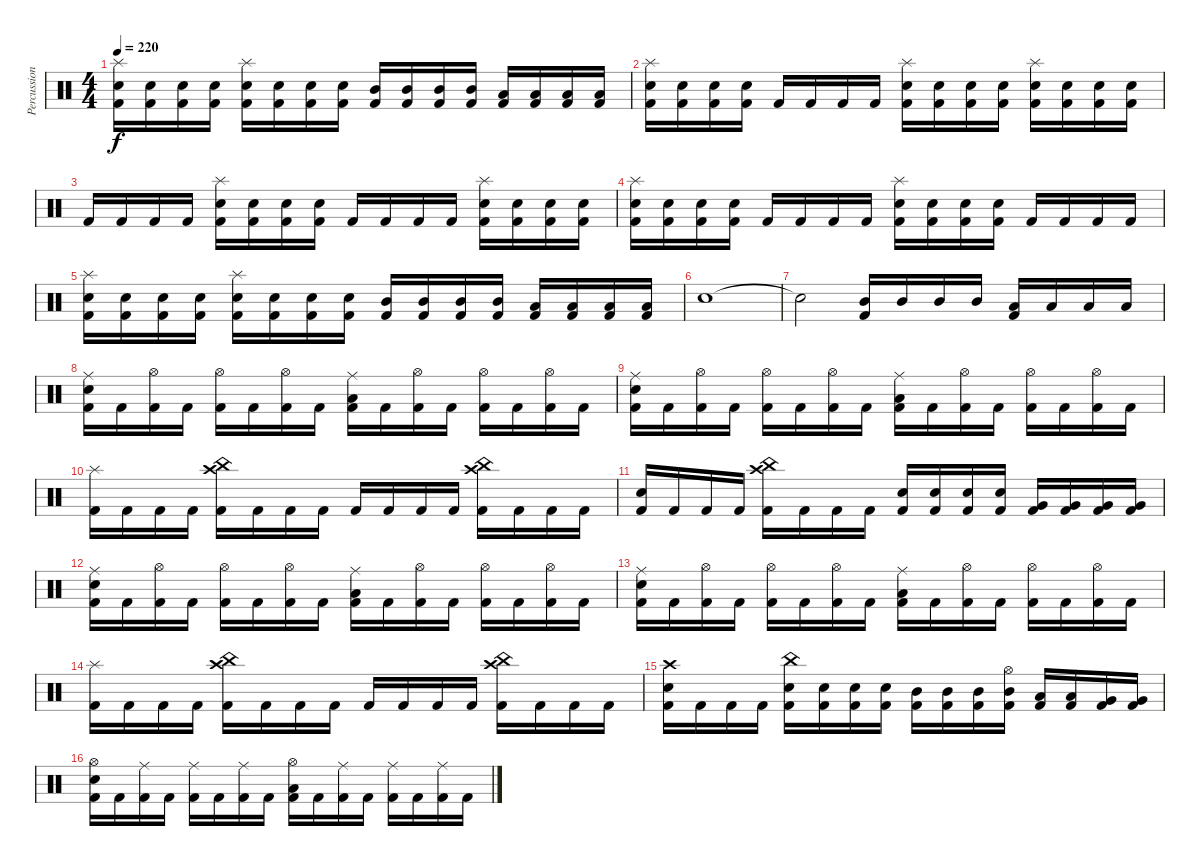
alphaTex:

\track ("Percussion" "Percussion") {instrument percussion}
\staff {score}
\articulation defaults
\ts (4 4)
\tempo 220
\clef neutral
\ks c
("Splash (hit)" "Electric Snare (hit)" "Kick (hit) 2").16{dy f} ("Electric Snare (hit)" "Kick (hit) 2").16 ("Electric Snare (hit)" "Kick (hit) 2").16 ("Electric Snare (hit)" "Kick (hit) 2").16 ("Splash (hit)" "Electric Snare (hit)" "Kick (hit) 2").16 ("Electric Snare (hit)" "Kick (hit) 2").16 ("Electric Snare (hit)" "Kick (hit) 2").16 ("Electric Snare (hit)" "Kick (hit) 2").16 ("Mid Tom (hit)" "Kick (hit) 2").16 ("Mid Tom (hit)" "Kick (hit) 2").16 ("Mid Tom (hit)" "Kick (hit) 2").16 ("Mid Tom (hit)" "Kick (hit) 2").16 ("Low Tom (hit)" "Kick (hit) 2").16 ("Low Tom (hit)" "Kick (hit) 2").16 ("Low Tom (hit)" "Kick (hit) 2").16 ("Low Tom (hit)" "Kick (hit) 2").16 |
("Splash (hit)" "Electric Snare (hit)" "Kick (hit) 2").16 ("Electric Snare (hit)" "Kick (hit) 2").16 ("Electric Snare (hit)" "Kick (hit) 2").16 ("Electric Snare (hit)" "Kick (hit) 2").16 "Kick (hit) 2".16 "Kick (hit) 2".16 "Kick (hit) 2".16 "Kick (hit) 2".16 ("Splash (hit)" "Electric Snare (hit)" "Kick (hit) 2").16 ("Electric Snare (hit)" "Kick (hit) 2").16 ("Electric Snare (hit)" "Kick (hit) 2").16 ("Electric Snare (hit)" "Kick (hit) 2").16 ("Splash (hit)" "Electric Snare (hit)" "Kick (hit) 2").16 ("Electric Snare (hit)" "Kick (hit) 2").16 ("Electric Snare (hit)" "Kick (hit) 2").16 ("Electric Snare (hit)" "Kick (hit) 2").16 |
"Kick (hit) 2".16 "Kick (hit) 2".16 "Kick (hit) 2".16 "Kick (hit) 2".16 ("Splash (hit)" "Electric Snare (hit)" "Kick (hit) 2").16 ("Electric Snare (hit)" "Kick (hit) 2").16 ("Electric Snare (hit)" "Kick (hit) 2").16 ("Electric Snare (hit)" "Kick (hit) 2").16 "Kick (hit) 2".16 "Kick (hit) 2".16 "Kick (hit) 2".16 "Kick (hit) 2".16 ("Splash (hit)" "Electric Snare (hit)" "Kick (hit) 2").16 ("Electric Snare (hit)" "Kick (hit) 2").16 ("Electric Snare (hit)" "Kick (hit) 2").16 ("Electric Snare (hit)" "Kick (hit) 2").16 |
("Splash (hit)" "Electric Snare (hit)" "Kick (hit) 2").16 ("Electric Snare (hit)" "Kick (hit) 2").16 ("Electric Snare (hit)" "Kick (hit) 2").16 ("Electric Snare (hit)" "Kick (hit) 2").16 "Kick (hit) 2".16 "Kick (hit) 2".16 "Kick (hit) 2".16 "Kick (hit) 2".16 ("Splash (hit)" "Electric Snare (hit)" "Kick (hit) 2").16 ("Electric Snare (hit)" "Kick (hit) 2").16 ("Electric Snare (hit)" "Kick (hit) 2").16 ("Electric Snare (hit)" "Kick (hit) 2").16 "Kick (hit) 2".16 "Kick (hit) 2".16 "Kick (hit) 2".16 "Kick (hit) 2".16 |
("Splash (hit)" "Electric Snare (hit)" "Kick (hit) 2").16 ("Electric Snare (hit)" "Kick (hit) 2").16 ("Electric Snare (hit)" "Kick (hit) 2").16 ("Electric Snare (hit)" "Kick (hit) 2").16 ("Splash (hit)" "Electric Snare (hit)" "Kick (hit) 2").16 ("Electric Snare (hit)" "Kick (hit) 2").16 ("Electric Snare (hit)" "Kick (hit) 2").16 ("Electric Snare (hit)" "Kick (hit) 2").16 ("Mid Tom (hit)" "Kick (hit) 2").16 ("Mid Tom (hit)" "Kick (hit) 2").16 ("Mid Tom (hit)" "Kick (hit) 2").16 ("Mid Tom (hit)" "Kick (hit) 2").16 ("Low Tom (hit)" "Kick (hit) 2").16 ("Low Tom (hit)" "Kick (hit) 2").16 ("Low Tom (hit)" "Kick (hit) 2").16 ("Low Tom (hit)" "Kick (hit) 2").16 |
"Electric Snare (hit)".1 |
"Snare (hit)"{t}.2 ("Mid Tom (hit)" "Kick (hit) 2").16 "Mid Tom (hit)".16 "Mid Tom (hit)".16 "Mid Tom (hit)".16 ("Low Tom (hit)" "Kick (hit) 2").16 "Low Tom (hit)".16 "Low Tom (hit)".16 "Low Tom (hit)".16 |
("Ride (middle)" "Electric Snare (hit)" "Kick (hit) 2").16 "Kick (hit) 2".16 ("Hi-Hat (open)" "Kick (hit) 2").16 "Kick (hit) 2".16 ("Hi-Hat (open)" "Kick (hit) 2").16 "Kick (hit) 2".16 ("Hi-Hat (open)" "Kick (hit) 2").16 "Kick (hit) 2".16 ("Ride (middle)" "Low Tom (hit)" "Kick (hit) 2").16 "Kick (hit) 2".16 ("Hi-Hat (open)" "Kick (hit) 2").16 "Kick (hit) 2".16 ("Hi-Hat (open)" "Kick (hit) 2").16 "Kick (hit) 2".16 ("Hi-Hat (open)" "Kick (hit) 2").16 "Kick (hit) 2".16 |
("Ride (middle)" "Electric Snare (hit)" "Kick (hit) 2").16 "Kick (hit) 2".16 ("Hi-Hat (open)" "Kick (hit) 2").16 "Kick (hit) 2".16 ("Hi-Hat (open)" "Kick (hit) 2").16 "Kick (hit) 2".16 ("Hi-Hat (open)" "Kick (hit) 2").16 "Kick (hit) 2".16 ("Ride (middle)" "Low Tom (hit)" "Kick (hit) 2").16 "Kick (hit) 2".16 ("Hi-Hat (open)" "Kick (hit) 2").16 "Kick (hit) 2".16 ("Hi-Hat (open)" "Kick (hit) 2").16 "Kick (hit) 2".16 ("Hi-Hat (open)" "Kick (hit) 2").16 "Kick (hit) 2".16 |
("Splash (hit)" "Kick (hit) 2").16 "Kick (hit) 2".16 "Kick (hit) 2".16 "Kick (hit) 2".16 ("Crash high (hit)" "China (hit)" "Kick (hit) 2").16 "Kick (hit) 2".16 "Kick (hit) 2".16 "Kick (hit) 2".16 "Kick (hit) 2".16 "Kick (hit) 2".16 "Kick (hit) 2".16 "Kick (hit) 2".16 ("Crash high (hit)" "China (hit)" "Kick (hit) 2").16 "Kick (hit) 2".16 "Kick (hit) 2".16 "Kick (hit) 2".16 |
("Electric Snare (hit)" "Kick (hit) 2").16 "Kick (hit) 2".16 "Kick (hit) 2".16 "Kick (hit) 2".16 ("Crash high (hit)" "China (hit)" "Kick (hit) 2").16 "Kick (hit) 2".16 "Kick (hit) 2".16 "Kick (hit) 2".16 ("Electric Snare (hit)" "Kick (hit) 2").16 ("Electric Snare (hit)" "Kick (hit) 2").16 ("Electric Snare (hit)" "Kick (hit) 2").16 ("Electric Snare (hit)" "Kick (hit) 2").16 ("Very Low Tom (hit)" "Kick (hit) 2").16 ("Very Low Tom (hit)" "Kick (hit) 2").16 ("Very Low Tom (hit)" "Kick (hit) 2").16 ("Very Low Tom (hit)" "Kick (hit) 2").16 |
("Ride (middle)" "Electric Snare (hit)" "Kick (hit) 2").16 "Kick (hit) 2".16 ("Hi-Hat (open)" "Kick (hit) 2").16 "Kick (hit) 2".16 ("Hi-Hat (open)" "Kick (hit) 2").16 "Kick (hit) 2".16 ("Hi-Hat (open)" "Kick (hit) 2").16 "Kick (hit) 2".16 ("Ride (middle)" "Low Tom (hit)" "Kick (hit) 2").16 "Kick (hit) 2".16 ("Hi-Hat (open)" "Kick (hit) 2").16 "Kick (hit) 2".16 ("Hi-Hat (open)" "Kick (hit) 2").16 "Kick (hit) 2".16 ("Hi-Hat (open)" "Kick (hit) 2").16 "Kick (hit) 2".16 |
("Ride (middle)" "Electric Snare (hit)" "Kick (hit) 2").16 "Kick (hit) 2".16 ("Hi-Hat (open)" "Kick (hit) 2").16 "Kick (hit) 2".16 ("Hi-Hat (open)" "Kick (hit) 2").16 "Kick (hit) 2".16 ("Hi-Hat (open)" "Kick (hit) 2").16 "Kick (hit) 2".16 ("Ride (middle)" "Low Tom (hit)" "Kick (hit) 2").16 "Kick (hit) 2".16 ("Hi-Hat (open)" "Kick (hit) 2").16 "Kick (hit) 2".16 ("Hi-Hat (open)" "Kick (hit) 2").16 "Kick (hit) 2".16 ("Hi-Hat (open)" "Kick (hit) 2").16 "Kick (hit) 2".16 |
("Splash (hit)" "Kick (hit) 2").16 "Kick (hit) 2".16 "Kick (hit) 2".16 "Kick (hit) 2".16 ("Crash high (hit)" "China (hit)" "Kick (hit) 2").16 "Kick (hit) 2".16 "Kick (hit) 2".16 "Kick (hit) 2".16 "Kick (hit) 2".16 "Kick (hit) 2".16 "Kick (hit) 2".16 "Kick (hit) 2".16 ("Crash high (hit)" "China (hit)" "Kick (hit) 2").16 "Kick (hit) 2".16 "Kick (hit) 2".16 "Kick (hit) 2".16 |
("Crash high (hit)" "Electric Snare (hit)" "Kick (hit) 2").16 "Kick (hit) 2".16 "Kick (hit) 2".16 "Kick (hit) 2".16 ("China (hit)" "Electric Snare (hit)" "Kick (hit) 2").16 ("Electric Snare (hit)" "Kick (hit) 2").16 ("Electric Snare (hit)" "Kick (hit) 2").16 ("Electric Snare (hit)" "Kick (hit) 2").16 ("Mid Tom (hit)" "Kick (hit) 2").16 ("Mid Tom (hit)" "Kick (hit) 2").16 ("Mid Tom (hit)" "Kick (hit) 2").16 ("Hi-Hat (open)" "Mid Tom (hit)" "Kick (hit) 2").16 ("Low Tom (hit)" "Kick (hit) 2").16 ("Low Tom (hit)" "Kick (hit) 2").16 ("Very Low Tom (hit)" "Kick (hit) 2").16 ("Very Low Tom (hit)" "Kick (hit) 2").16 |
("Hi-Hat (open)" "Electric Snare (hit)" "Kick (hit) 2").16 "Kick (hit) 2".16 ("Ride (middle)" "Kick (hit) 2").16 "Kick (hit) 2".16 ("Ride (middle)" "Kick (hit) 2").16 "Kick (hit) 2".16 ("Ride (middle)" "Kick (hit) 2").16 "Kick (hit) 2".16 ("Hi-Hat (open)" "Low Tom (hit)" "Kick (hit) 2").16 "Kick (hit) 2".16 ("Ride (middle)" "Kick (hit) 2").16 "Kick (hit) 2".16 ("Ride (middle)" "Kick (hit) 2").16 "Kick (hit) 2".16 ("Ride (middle)" "Kick (hit) 2").16 "Kick (hit) 2".16
